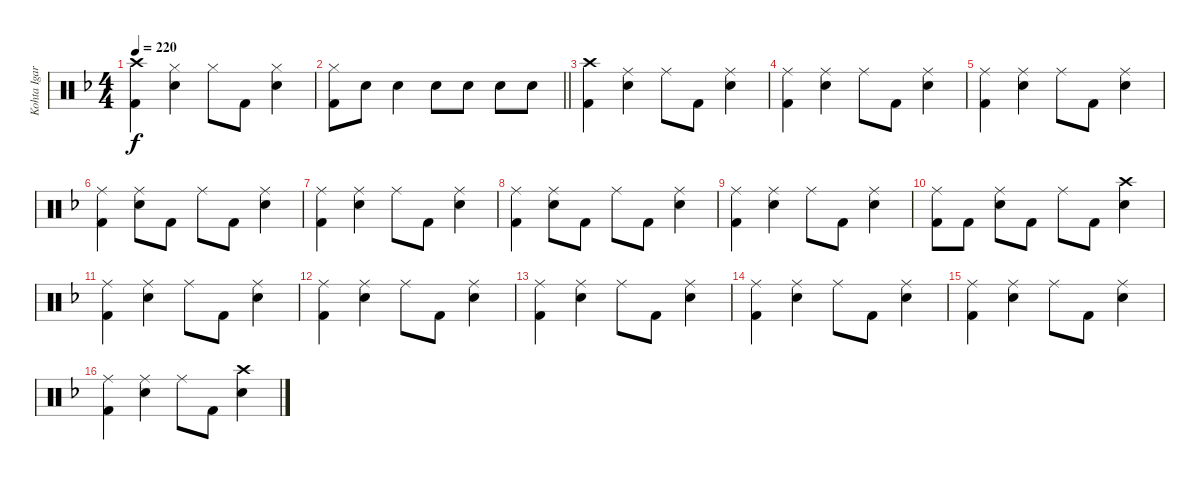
\track ("Kohta Igarashi" "Kohta Igar") {instrument percussion}
\staff {score}
\articulation defaults
\ts (4 4)
\tempo 220
\clef neutral
\ks f
("Crash high (hit)" "Kick (hit) 2").4{dy f} ("Hi-Hat (closed)" "Electric Snare (hit)").4 "Hi-Hat (closed)".8 "Kick (hit) 2".8 ("Hi-Hat (closed)" "Electric Snare (hit)").4 |
\barLineRight lightlight
("Hi-Hat (closed)" "Kick (hit) 2").8 "Electric Snare (hit)".8 "Electric Snare (hit)".4 "Electric Snare (hit)".8 "Electric Snare (hit)".8 "Electric Snare (hit)".8 "Electric Snare (hit)".8 |
("Crash high (hit)" "Kick (hit) 2").4 ("Ride (middle)" "Electric Snare (hit)").4 "Ride (middle)".8 "Kick (hit) 2".8 ("Ride (middle)" "Electric Snare (hit)").4 |
("Ride (middle)" "Kick (hit) 2").4 ("Ride (middle)" "Electric Snare (hit)").4 "Ride (middle)".8 "Kick (hit) 2".8 ("Ride (middle)" "Electric Snare (hit)").4 |
("Ride (middle)" "Kick (hit) 2").4 ("Ride (middle)" "Electric Snare (hit)").4 "Ride (middle)".8 "Kick (hit) 2".8 ("Ride (middle)" "Electric Snare (hit)").4 |
("Ride (middle)" "Kick (hit) 2").4 ("Ride (middle)" "Electric Snare (hit)").8 "Kick (hit) 2".8 "Ride (middle)".8 "Kick (hit) 2".8 ("Ride (middle)" "Electric Snare (hit)").4 |
("Ride (middle)" "Kick (hit) 2").4 ("Ride (middle)" "Electric Snare (hit)").4 "Ride (middle)".8 "Kick (hit) 2".8 ("Ride (middle)" "Electric Snare (hit)").4 |
("Ride (middle)" "Kick (hit) 2").4 ("Ride (middle)" "Electric Snare (hit)").8 "Kick (hit) 2".8 "Ride (middle)".8 "Kick (hit) 2".8 ("Ride (middle)" "Electric Snare (hit)").4 |
("Ride (middle)" "Kick (hit) 2").4 ("Ride (middle)" "Electric Snare (hit)").4 "Ride (middle)".8 "Kick (hit) 2".8 ("Ride (middle)" "Electric Snare (hit)").4 |
("Ride (middle)" "Kick (hit) 2").8 "Kick (hit) 2".8 ("Ride (middle)" "Electric Snare (hit)").8 "Kick (hit) 2".8 "Ride (middle)".8 "Kick (hit) 2".8 ("Crash high (hit)" "Electric Snare (hit)").4 |
("Ride (middle)" "Kick (hit) 2").4 ("Ride (middle)" "Electric Snare (hit)").4 "Ride (middle)".8 "Kick (hit) 2".8 ("Ride (middle)" "Electric Snare (hit)").4 |
("Ride (middle)" "Kick (hit) 2").4 ("Ride (middle)" "Electric Snare (hit)").4 "Ride (middle)".8 "Kick (hit) 2".8 ("Ride (middle)" "Electric Snare (hit)").4 |
("Ride (middle)" "Kick (hit) 2").4 ("Ride (middle)" "Electric Snare (hit)").4 "Ride (middle)".8 "Kick (hit) 2".8 ("Ride (middle)" "Electric Snare (hit)").4 |
("Ride (middle)" "Kick (hit) 2").4 ("Ride (middle)" "Electric Snare (hit)").4 "Ride (middle)".8 "Kick (hit) 2".8 ("Ride (middle)" "Electric Snare (hit)").4 |
("Ride (middle)" "Kick (hit) 2").4 ("Ride (middle)" "Electric Snare (hit)").4 "Ride (middle)".8 "Kick (hit) 2".8 ("Ride (middle)" "Electric Snare (hit)").4 |
("Ride (middle)" "Kick (hit) 2").4 ("Ride (middle)" "Electric Snare (hit)").4 "Ride (middle)".8 "Kick (hit) 2".8 ("Crash high (hit)" "Electric Snare (hit)").4
